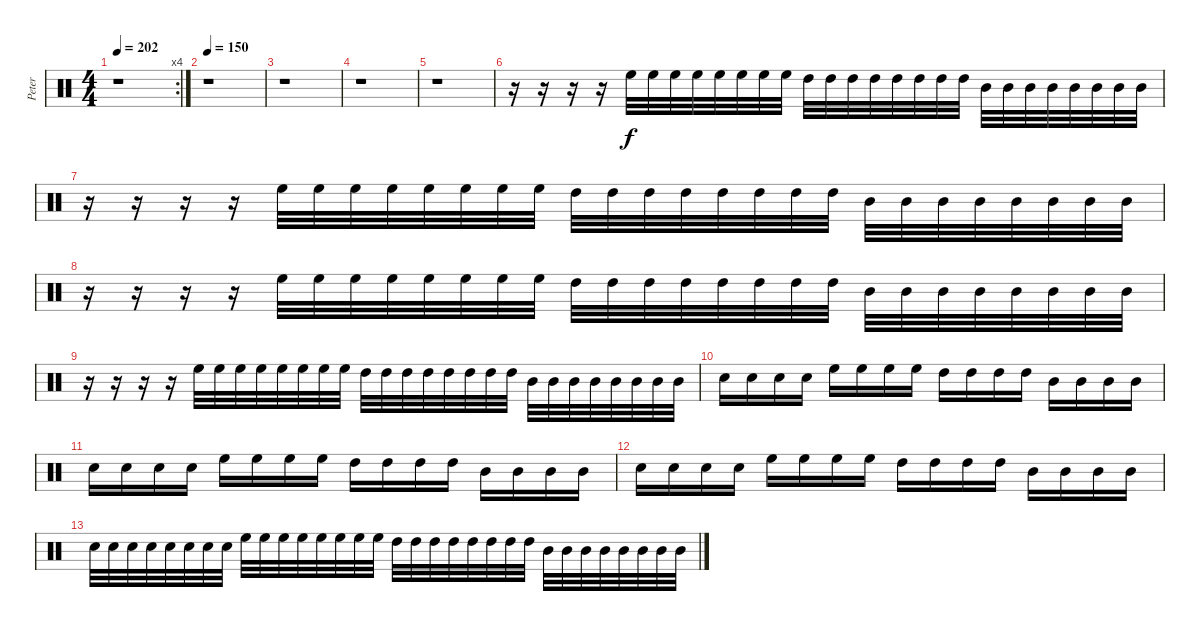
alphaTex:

\track ("Peter" "Peter") {instrument percussion}
\staff {score}
\articulation defaults
\rc 4
\ts (4 4)
\tempo 202
\clef neutral
\ks c
r.1{dy f} |
\tempo 150
r.1 |
r.1 |
r.1 |
r.1 |
r.16 r.16 r.16 r.16 "High Floor Tom (hit)".32 "High Floor Tom (hit)".32 "High Floor Tom (hit)".32 "High Floor Tom (hit)".32 "High Floor Tom (hit)".32 "High Floor Tom (hit)".32 "High Floor Tom (hit)".32 "High Floor Tom (hit)".32 "High Tom (hit)".32 "High Tom (hit)".32 "High Tom (hit)".32 "High Tom (hit)".32 "High Tom (hit)".32 "High Tom (hit)".32 "High Tom (hit)".32 "High Tom (hit)".32 "Mid Tom (hit)".32 "Mid Tom (hit)".32 "Mid Tom (hit)".32 "Mid Tom (hit)".32 "Mid Tom (hit)".32 "Mid Tom (hit)".32 "Mid Tom (hit)".32 "Mid Tom (hit)".32 |
r.16 r.16 r.16 r.16 "High Floor Tom (hit)".32 "High Floor Tom (hit)".32 "High Floor Tom (hit)".32 "High Floor Tom (hit)".32 "High Floor Tom (hit)".32 "High Floor Tom (hit)".32 "High Floor Tom (hit)".32 "High Floor Tom (hit)".32 "High Tom (hit)".32 "High Tom (hit)".32 "High Tom (hit)".32 "High Tom (hit)".32 "High Tom (hit)".32 "High Tom (hit)".32 "High Tom (hit)".32 "High Tom (hit)".32 "Mid Tom (hit)".32 "Mid Tom (hit)".32 "Mid Tom (hit)".32 "Mid Tom (hit)".32 "Mid Tom (hit)".32 "Mid Tom (hit)".32 "Mid Tom (hit)".32 "Mid Tom (hit)".32 |
r.16 r.16 r.16 r.16 "High Floor Tom (hit)".32 "High Floor Tom (hit)".32 "High Floor Tom (hit)".32 "High Floor Tom (hit)".32 "High Floor Tom (hit)".32 "High Floor Tom (hit)".32 "High Floor Tom (hit)".32 "High Floor Tom (hit)".32 "High Tom (hit)".32 "High Tom (hit)".32 "High Tom (hit)".32 "High Tom (hit)".32 "High Tom (hit)".32 "High Tom (hit)".32 "High Tom (hit)".32 "High Tom (hit)".32 "Mid Tom (hit)".32 "Mid Tom (hit)".32 "Mid Tom (hit)".32 "Mid Tom (hit)".32 "Mid Tom (hit)".32 "Mid Tom (hit)".32 "Mid Tom (hit)".32 "Mid Tom (hit)".32 |
r.16 r.16 r.16 r.16 "High Floor Tom (hit)".32 "High Floor Tom (hit)".32 "High Floor Tom (hit)".32 "High Floor Tom (hit)".32 "High Floor Tom (hit)".32 "High Floor Tom (hit)".32 "High Floor Tom (hit)".32 "High Floor Tom (hit)".32 "High Tom (hit)".32 "High Tom (hit)".32 "High Tom (hit)".32 "High Tom (hit)".32 "High Tom (hit)".32 "High Tom (hit)".32 "High Tom (hit)".32 "High Tom (hit)".32 "Mid Tom (hit)".32 "Mid Tom (hit)".32 "Mid Tom (hit)".32 "Mid Tom (hit)".32 "Mid Tom (hit)".32 "Mid Tom (hit)".32 "Mid Tom (hit)".32 "Mid Tom (hit)".32 |
"Electric Snare (hit)".16 "Electric Snare (hit)".16 "Electric Snare (hit)".16 "Electric Snare (hit)".16 "High Floor Tom (hit)".16 "High Floor Tom (hit)".16 "High Floor Tom (hit)".16 "High Floor Tom (hit)".16 "High Tom (hit)".16 "High Tom (hit)".16 "High Tom (hit)".16 "High Tom (hit)".16 "Mid Tom (hit)".16 "Mid Tom (hit)".16 "Mid Tom (hit)".16 "Mid Tom (hit)".16 |
"Electric Snare (hit)".16 "Electric Snare (hit)".16 "Electric Snare (hit)".16 "Electric Snare (hit)".16 "High Floor Tom (hit)".16 "High Floor Tom (hit)".16 "High Floor Tom (hit)".16 "High Floor Tom (hit)".16 "High Tom (hit)".16 "High Tom (hit)".16 "High Tom (hit)".16 "High Tom (hit)".16 "Mid Tom (hit)".16 "Mid Tom (hit)".16 "Mid Tom (hit)".16 "Mid Tom (hit)".16 |
"Electric Snare (hit)".16 "Electric Snare (hit)".16 "Electric Snare (hit)".16 "Electric Snare (hit)".16 "High Floor Tom (hit)".16 "High Floor Tom (hit)".16 "High Floor Tom (hit)".16 "High Floor Tom (hit)".16 "High Tom (hit)".16 "High Tom (hit)".16 "High Tom (hit)".16 "High Tom (hit)".16 "Mid Tom (hit)".16 "Mid Tom (hit)".16 "Mid Tom (hit)".16 "Mid Tom (hit)".16 |
"Electric Snare (hit)".32 "Electric Snare (hit)".32 "Electric Snare (hit)".32 "Electric Snare (hit)".32 "Electric Snare (hit)".32 "Electric Snare (hit)".32 "Electric Snare (hit)".32 "Electric Snare (hit)".32 "High Floor Tom (hit)".32 "High Floor Tom (hit)".32 "High Floor Tom (hit)".32 "High Floor Tom (hit)".32 "High Floor Tom (hit)".32 "High Floor Tom (hit)".32 "High Floor Tom (hit)".32 "High Floor Tom (hit)".32 "High Tom (hit)".32 "High Tom (hit)".32 "High Tom (hit)".32 "High Tom (hit)".32 "High Tom (hit)".32 "High Tom (hit)".32 "High Tom (hit)".32 "High Tom (hit)".32 "Mid Tom (hit)".32 "Mid Tom (hit)".32 "Mid Tom (hit)".32 "Mid Tom (hit)".32 "Mid Tom (hit)".32 "Mid Tom (hit)".32 "Mid Tom (hit)".32 "Mid Tom (hit)".32
